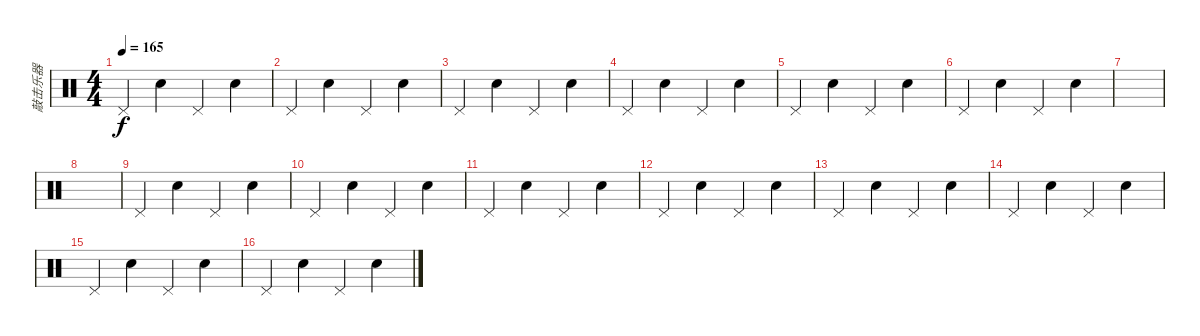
\track ("敲击乐器" "敲击乐器") {instrument percussion}
\staff {score}
\articulation defaults
\ts (4 4)
\tempo 165
\clef neutral
\ks c "Pedal Hi-Hat (hit)".4{dy f} "Snare (hit) 2".4 "Pedal Hi-Hat (hit)".4 "Snare (hit) 2".4
|
"Pedal Hi-Hat (hit)".4 "Snare (hit) 2".4 "Pedal Hi-Hat (hit)".4 "Snare (hit) 2".4 |
"Pedal Hi-Hat (hit)".4 "Snare (hit) 2".4 "Pedal Hi-Hat (hit)".4 "Snare (hit) 2".4 |
"Pedal Hi-Hat (hit)".4 "Snare (hit) 2".4 "Pedal Hi-Hat (hit)".4 "Snare (hit) 2".4 |
"Pedal Hi-Hat (hit)".4 "Snare (hit) 2".4 "Pedal Hi-Hat (hit)".4 "Snare (hit) 2".4 |
"Pedal Hi-Hat (hit)".4 "Snare (hit) 2".4 "Pedal Hi-Hat (hit)".4 "Snare (hit) 2".4 |
|
|
"Pedal Hi-Hat (hit)".4 "Snare (hit) 2".4 "Pedal Hi-Hat (hit)".4 "Snare (hit) 2".4 |
"Pedal Hi-Hat (hit)".4 "Snare (hit) 2".4 "Pedal Hi-Hat (hit)".4 "Snare (hit) 2".4 |
"Pedal Hi-Hat (hit)".4 "Snare (hit) 2".4 "Pedal Hi-Hat (hit)".4 "Snare (hit) 2".4 |
"Pedal Hi-Hat (hit)".4 "Snare (hit) 2".4 "Pedal Hi-Hat (hit)".4 "Snare (hit) 2".4 |
"Pedal Hi-Hat (hit)".4 "Snare (hit) 2".4 "Pedal Hi-Hat (hit)".4 "Snare (hit) 2".4 |
"Pedal Hi-Hat (hit)".4 "Snare (hit) 2".4 "Pedal Hi-Hat (hit)".4 "Snare (hit) 2".4 |
"Pedal Hi-Hat (hit)".4 "Snare (hit) 2".4 "Pedal Hi-Hat (hit)".4 "Snare (hit) 2".4 |
"Pedal Hi-Hat (hit)".4 "Snare (hit) 2".4 "Pedal Hi-Hat (hit)".4 "Snare (hit) 2".4
